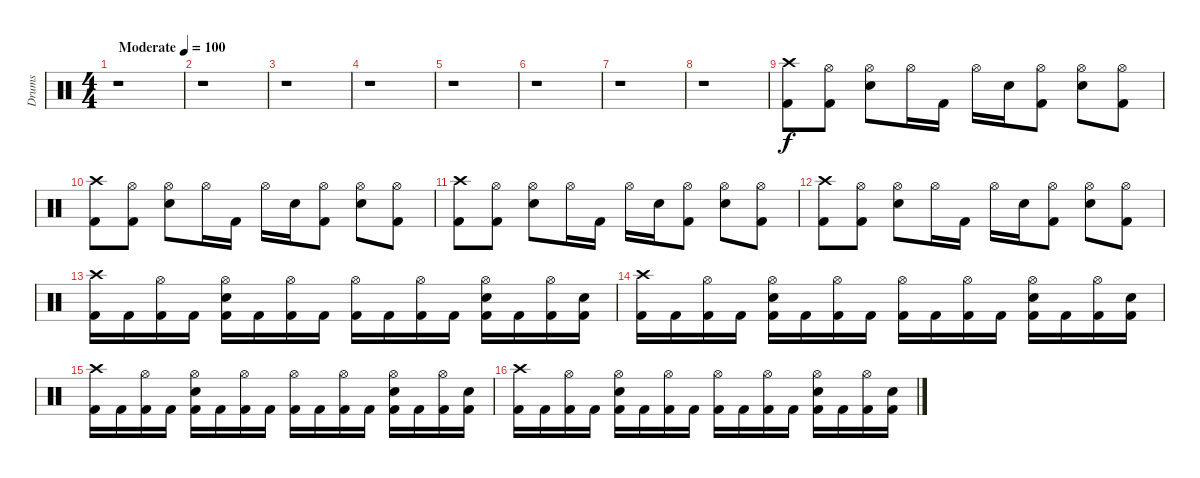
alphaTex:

\track ("Drums" "Drums") {instrument percussion}
\staff {score}
\articulation defaults
\ts (4 4)
\tempo (100 "Moderate")
\clef neutral
\ks c
r.1{dy f} |
r.1 |
r.1 |
r.1 |
r.1 |
r.1 |
r.1 |
r.1 |
("Kick (hit) 2" "Crash high (hit)").8 ("Hi-Hat (open)" "Kick (hit) 2").8 ("Electric Snare (hit)" "Hi-Hat (open)").8 "Hi-Hat (open)".16 "Kick (hit) 2".16 "Hi-Hat (open)".16 "Electric Snare (hit)".16 ("Hi-Hat (open)" "Kick (hit) 2").8 ("Hi-Hat (open)" "Electric Snare (hit)").8 ("Kick (hit) 2" "Hi-Hat (open)").8 |
("Kick (hit) 2" "Crash high (hit)").8 ("Hi-Hat (open)" "Kick (hit) 2").8 ("Electric Snare (hit)" "Hi-Hat (open)").8 "Hi-Hat (open)".16 "Kick (hit) 2".16 "Hi-Hat (open)".16 "Electric Snare (hit)".16 ("Hi-Hat (open)" "Kick (hit) 2").8 ("Hi-Hat (open)" "Electric Snare (hit)").8 ("Kick (hit) 2" "Hi-Hat (open)").8 |
("Kick (hit) 2" "Crash high (hit)").8 ("Hi-Hat (open)" "Kick (hit) 2").8 ("Electric Snare (hit)" "Hi-Hat (open)").8 "Hi-Hat (open)".16 "Kick (hit) 2".16 "Hi-Hat (open)".16 "Electric Snare (hit)".16 ("Hi-Hat (open)" "Kick (hit) 2").8 ("Hi-Hat (open)" "Electric Snare (hit)").8 ("Kick (hit) 2" "Hi-Hat (open)").8 |
("Kick (hit) 2" "Crash high (hit)").8 ("Hi-Hat (open)" "Kick (hit) 2").8 ("Electric Snare (hit)" "Hi-Hat (open)").8 "Hi-Hat (open)".16 "Kick (hit) 2".16 "Hi-Hat (open)".16 "Electric Snare (hit)".16 ("Hi-Hat (open)" "Kick (hit) 2").8 ("Hi-Hat (open)" "Electric Snare (hit)").8 ("Kick (hit) 2" "Hi-Hat (open)").8 |
("Crash high (hit)" "Kick (hit) 2").16 "Kick (hit) 2".16 ("Hi-Hat (open)" "Kick (hit) 2").16 "Kick (hit) 2".16 ("Hi-Hat (open)" "Electric Snare (hit)" "Kick (hit) 2").16 "Kick (hit) 2".16 ("Kick (hit) 2" "Hi-Hat (open)").16 "Kick (hit) 2".16 ("Kick (hit) 2" "Hi-Hat (open)").16 "Kick (hit) 2".16 ("Hi-Hat (open)" "Kick (hit) 2").16 "Kick (hit) 2".16 ("Hi-Hat (open)" "Kick (hit) 2" "Electric Snare (hit)").16 "Kick (hit) 2".16 ("Kick (hit) 2" "Hi-Hat (open)").16 ("Kick (hit) 2" "Electric Snare (hit)").16 |
("Crash high (hit)" "Kick (hit) 2").16 "Kick (hit) 2".16 ("Hi-Hat (open)" "Kick (hit) 2").16 "Kick (hit) 2".16 ("Hi-Hat (open)" "Electric Snare (hit)" "Kick (hit) 2").16 "Kick (hit) 2".16 ("Kick (hit) 2" "Hi-Hat (open)").16 "Kick (hit) 2".16 ("Kick (hit) 2" "Hi-Hat (open)").16 "Kick (hit) 2".16 ("Hi-Hat (open)" "Kick (hit) 2").16 "Kick (hit) 2".16 ("Hi-Hat (open)" "Kick (hit) 2" "Electric Snare (hit)").16 "Kick (hit) 2".16 ("Kick (hit) 2" "Hi-Hat (open)").16 ("Kick (hit) 2" "Electric Snare (hit)").16 |
("Crash high (hit)" "Kick (hit) 2").16 "Kick (hit) 2".16 ("Hi-Hat (open)" "Kick (hit) 2").16 "Kick (hit) 2".16 ("Hi-Hat (open)" "Electric Snare (hit)" "Kick (hit) 2").16 "Kick (hit) 2".16 ("Kick (hit) 2" "Hi-Hat (open)").16 "Kick (hit) 2".16 ("Kick (hit) 2" "Hi-Hat (open)").16 "Kick (hit) 2".16 ("Hi-Hat (open)" "Kick (hit) 2").16 "Kick (hit) 2".16 ("Hi-Hat (open)" "Kick (hit) 2" "Electric Snare (hit)").16 "Kick (hit) 2".16 ("Kick (hit) 2" "Hi-Hat (open)").16 ("Kick (hit) 2" "Electric Snare (hit)").16 |
("Crash high (hit)" "Kick (hit) 2").16 "Kick (hit) 2".16 ("Hi-Hat (open)" "Kick (hit) 2").16 "Kick (hit) 2".16 ("Hi-Hat (open)" "Electric Snare (hit)" "Kick (hit) 2").16 "Kick (hit) 2".16 ("Kick (hit) 2" "Hi-Hat (open)").16 "Kick (hit) 2".16 ("Kick (hit) 2" "Hi-Hat (open)").16 "Kick (hit) 2".16 ("Hi-Hat (open)" "Kick (hit) 2").16 "Kick (hit) 2".16 ("Hi-Hat (open)" "Kick (hit) 2" "Electric Snare (hit)").16 "Kick (hit) 2".16 ("Kick (hit) 2" "Hi-Hat (open)").16 ("Kick (hit) 2" "Electric Snare (hit)").16
